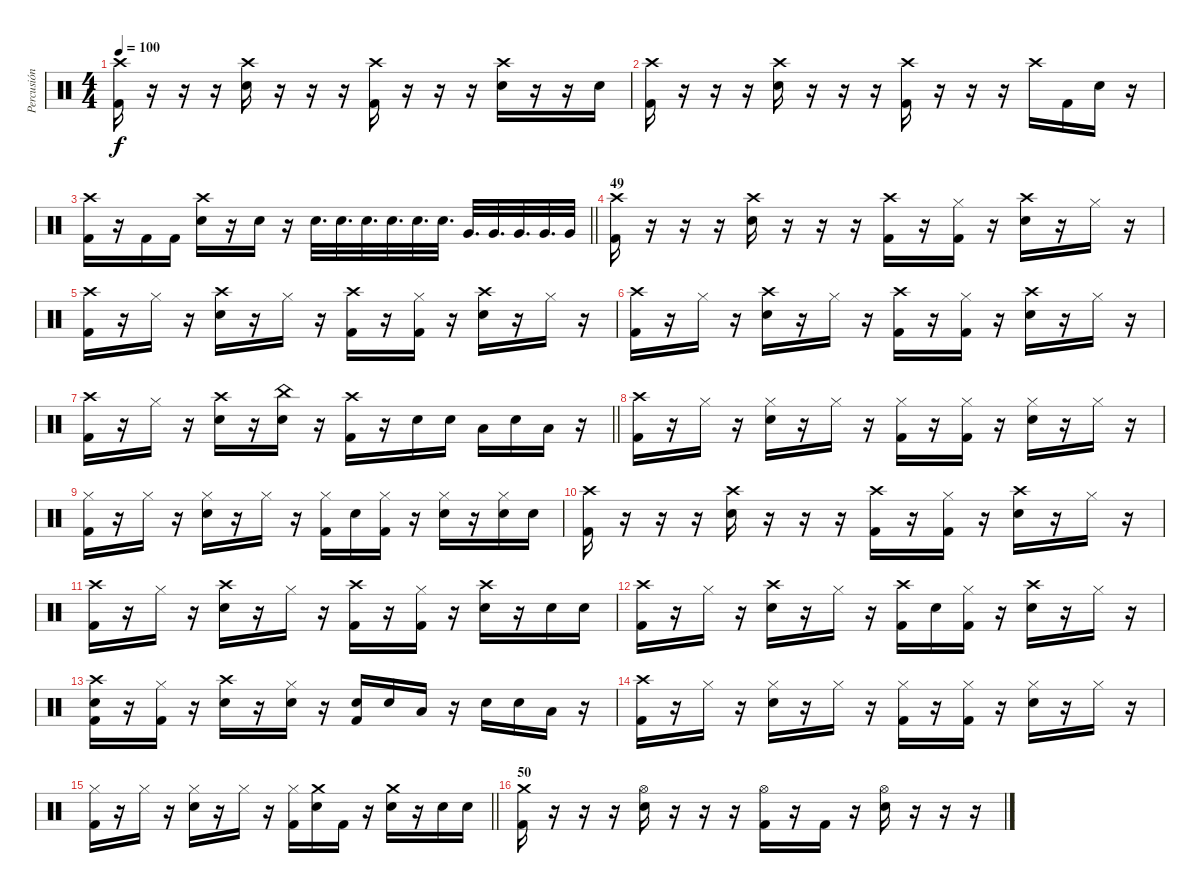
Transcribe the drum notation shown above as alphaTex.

\track ("Percusión" "Percusión") {instrument percussion}
\staff {score}
\articulation defaults
\ts (4 4)
\tempo 100
\clef neutral
\ks c
("Crash high (hit)" "Kick (hit) 2").16{dy f} r.16 r.16 r.16 ("Crash high (hit)" "Electric Snare (hit)").16 r.16 r.16 r.16 ("Crash high (hit)" "Kick (hit) 2").16 r.16 r.16 r.16 ("Crash high (hit)" "Electric Snare (hit)").16 r.16 r.16 "Electric Snare (hit)".16 |
("Crash high (hit)" "Kick (hit) 2").16 r.16 r.16 r.16 ("Crash high (hit)" "Electric Snare (hit)").16 r.16 r.16 r.16 ("Crash high (hit)" "Kick (hit) 2").16 r.16 r.16 r.16 "Crash high (hit)".16 "Kick (hit) 2".16 "Electric Snare (hit)".16 r.16 |
\barLineRight lightlight
("Crash high (hit)" "Kick (hit) 2").16 r.16 "Kick (hit) 2".16 "Kick (hit) 2".16 ("Crash high (hit)" "Electric Snare (hit)").16 r.16 "Electric Snare (hit)".16 r.16 "Electric Snare (hit)".32{d} "Electric Snare (hit)".32{d} "Electric Snare (hit)".32{d} "Electric Snare (hit)".32{d} "Electric Snare (hit)".32{d} "Electric Snare (hit)".32{d} "Very Low Tom (hit)".32{d} "Very Low Tom (hit)".32{d} "Very Low Tom (hit)".32{d} "Very Low Tom (hit)".32{d} "Very Low Tom (hit)".32 |
\section ("" "49")
("Crash high (hit)" "Kick (hit) 2").16 r.16 r.16 r.16 ("Crash high (hit)" "Electric Snare (hit)").16 r.16 r.16 r.16 ("Crash high (hit)" "Kick (hit) 2").16 r.16 ("Hi-Hat (closed)" "Kick (hit) 2").16 r.16 ("Crash high (hit)" "Electric Snare (hit)").16 r.16 "Hi-Hat (closed)".16 r.16 |
("Crash high (hit)" "Kick (hit) 2").16 r.16 "Hi-Hat (closed)".16 r.16 ("Crash high (hit)" "Electric Snare (hit)").16 r.16 "Hi-Hat (closed)".16 r.16 ("Crash high (hit)" "Kick (hit) 2").16 r.16 ("Hi-Hat (closed)" "Kick (hit) 2").16 r.16 ("Crash high (hit)" "Electric Snare (hit)").16 r.16 "Hi-Hat (closed)".16 r.16 |
("Crash high (hit)" "Kick (hit) 2").16 r.16 "Hi-Hat (closed)".16 r.16 ("Crash high (hit)" "Electric Snare (hit)").16 r.16 "Hi-Hat (closed)".16 r.16 ("Crash high (hit)" "Kick (hit) 2").16 r.16 ("Hi-Hat (closed)" "Kick (hit) 2").16 r.16 ("Crash high (hit)" "Electric Snare (hit)").16 r.16 "Hi-Hat (closed)".16 r.16 |
\barLineRight lightlight
("Crash high (hit)" "Kick (hit) 2").16 r.16 "Hi-Hat (closed)".16 r.16 ("Crash high (hit)" "Electric Snare (hit)").16 r.16 ("China (hit)" "Electric Snare (hit)").16 r.16 ("Crash high (hit)" "Kick (hit) 2").16 r.16 "Electric Snare (hit)".16 "Electric Snare (hit)".16 "Low Tom (hit)".16 "Electric Snare (hit)".16 "Low Tom (hit)".16 r.16 |
\section ("" "")
("Crash high (hit)" "Kick (hit) 2").16 r.16 "Hi-Hat (closed)".16 r.16 ("Hi-Hat (closed)" "Electric Snare (hit)").16 r.16 "Hi-Hat (closed)".16 r.16 ("Hi-Hat (closed)" "Kick (hit) 2").16 r.16 ("Hi-Hat (closed)" "Kick (hit) 2").16 r.16 ("Hi-Hat (closed)" "Electric Snare (hit)").16 r.16 "Hi-Hat (closed)".16 r.16 |
("Hi-Hat (closed)" "Kick (hit) 2").16 r.16 "Hi-Hat (closed)".16 r.16 ("Hi-Hat (closed)" "Electric Snare (hit)").16 r.16 "Hi-Hat (closed)".16 r.16 ("Hi-Hat (closed)" "Kick (hit) 2").16 "Electric Snare (hit)".16 ("Hi-Hat (closed)" "Kick (hit) 2").16 r.16 ("Hi-Hat (closed)" "Electric Snare (hit)").16 r.16 ("Hi-Hat (closed)" "Electric Snare (hit)").16 "Electric Snare (hit)".16 |
("Crash high (hit)" "Kick (hit) 2").16 r.16 r.16 r.16 ("Crash high (hit)" "Electric Snare (hit)").16 r.16 r.16 r.16 ("Crash high (hit)" "Kick (hit) 2").16 r.16 ("Hi-Hat (closed)" "Kick (hit) 2").16 r.16 ("Crash high (hit)" "Electric Snare (hit)").16 r.16 "Hi-Hat (closed)".16 r.16 |
("Crash high (hit)" "Kick (hit) 2").16 r.16 "Hi-Hat (closed)".16 r.16 ("Crash high (hit)" "Electric Snare (hit)").16 r.16 "Hi-Hat (closed)".16 r.16 ("Crash high (hit)" "Kick (hit) 2").16 r.16 ("Hi-Hat (closed)" "Kick (hit) 2").16 r.16 ("Crash high (hit)" "Electric Snare (hit)").16 r.16 "Electric Snare (hit)".16 "Electric Snare (hit)".16 |
("Crash high (hit)" "Kick (hit) 2").16 r.16 "Hi-Hat (closed)".16 r.16 ("Crash high (hit)" "Electric Snare (hit)").16 r.16 "Hi-Hat (closed)".16 r.16 ("Crash high (hit)" "Kick (hit) 2").16 "Electric Snare (hit)".16 ("Hi-Hat (closed)" "Kick (hit) 2").16 r.16 ("Crash high (hit)" "Electric Snare (hit)").16 r.16 "Hi-Hat (closed)".16 r.16 |
("Crash high (hit)" "Electric Snare (hit)" "Kick (hit) 2").16 r.16 ("Hi-Hat (closed)" "Kick (hit) 2").16 r.16 ("Crash high (hit)" "Electric Snare (hit)").16 r.16 ("Hi-Hat (closed)" "Electric Snare (hit)").16 r.16 ("Electric Snare (hit)" "Kick (hit) 2").16 "Electric Snare (hit)".16 "Low Tom (hit)".16 r.16 "Electric Snare (hit)".16 "Electric Snare (hit)".16 "Low Tom (hit)".16 r.16 |
("Crash high (hit)" "Kick (hit) 2").16 r.16 "Hi-Hat (closed)".16 r.16 ("Hi-Hat (closed)" "Electric Snare (hit)").16 r.16 "Hi-Hat (closed)".16 r.16 ("Hi-Hat (closed)" "Kick (hit) 2").16 r.16 ("Hi-Hat (closed)" "Kick (hit) 2").16 r.16 ("Hi-Hat (closed)" "Electric Snare (hit)").16 r.16 "Hi-Hat (closed)".16 r.16 |
\barLineRight lightlight
("Hi-Hat (closed)" "Kick (hit) 2").16 r.16 "Hi-Hat (closed)".16 r.16 ("Hi-Hat (closed)" "Electric Snare (hit)").16 r.16 "Hi-Hat (closed)".16 r.16 ("Hi-Hat (closed)" "Kick (hit) 2").16 ("Crash medium (hit)" "Electric Snare (hit)").16 "Kick (hit) 2".16 r.16 ("Crash medium (hit)" "Electric Snare (hit)").16 r.16 "Electric Snare (hit)".16 "Electric Snare (hit)".16 |
\section ("" "50")
("Crash medium (hit)" "Kick (hit) 2").16 r.16 r.16 r.16 ("Hi-Hat (open)" "Electric Snare (hit)").16 r.16 r.16 r.16 ("Hi-Hat (open)" "Kick (hit) 2").16 r.16 "Kick (hit) 2".16 r.16 ("Hi-Hat (open)" "Electric Snare (hit)").16 r.16 r.16 r.16
